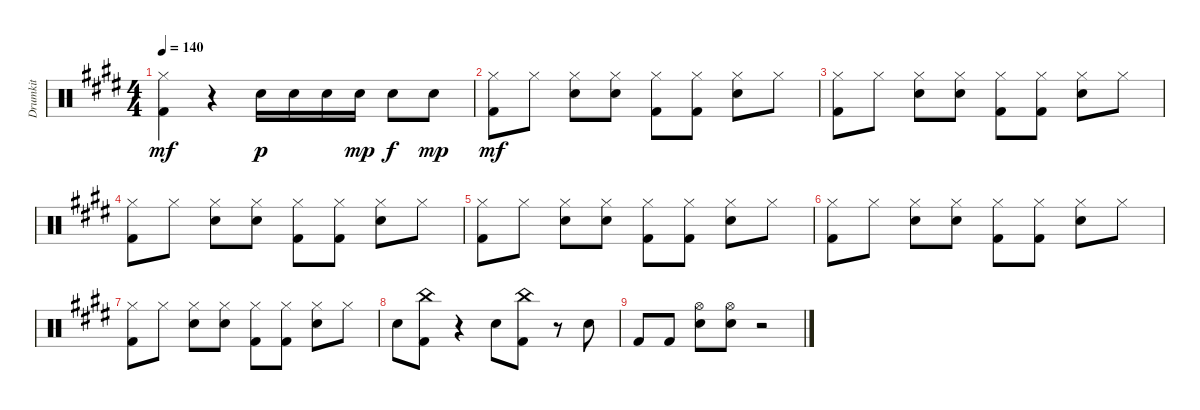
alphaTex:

\track ("Drumkit" "Drumkit") {instrument percussion}
\staff {score}
\articulation defaults
\ts (4 4)
\tempo 140
\clef neutral
\ks e
("Hi-Hat (closed)" "Kick (hit) 2").4{dy mf} r.4 "Snare (hit) 2".16{dy p} "Snare (hit) 2".16 "Snare (hit) 2".16 "Snare (hit) 2".16{dy mp} "Snare (hit) 2".8{dy f} "Snare (hit) 2".8{dy mp} |
("Hi-Hat (closed)" "Kick (hit) 2").8{dy mf} "Hi-Hat (closed)".8 ("Hi-Hat (closed)" "Snare (hit) 2").8 ("Hi-Hat (closed)" "Snare (hit) 2").8 ("Hi-Hat (closed)" "Kick (hit) 2").8 ("Hi-Hat (closed)" "Kick (hit) 2").8 ("Hi-Hat (closed)" "Snare (hit) 2").8 "Hi-Hat (closed)".8 |
("Hi-Hat (closed)" "Kick (hit) 2").8 "Hi-Hat (closed)".8 ("Hi-Hat (closed)" "Snare (hit) 2").8 ("Hi-Hat (closed)" "Snare (hit) 2").8 ("Hi-Hat (closed)" "Kick (hit) 2").8 ("Hi-Hat (closed)" "Kick (hit) 2").8 ("Hi-Hat (closed)" "Snare (hit) 2").8 "Hi-Hat (closed)".8 |
("Hi-Hat (closed)" "Kick (hit) 2").8 "Hi-Hat (closed)".8 ("Hi-Hat (closed)" "Snare (hit) 2").8 ("Hi-Hat (closed)" "Snare (hit) 2").8 ("Hi-Hat (closed)" "Kick (hit) 2").8 ("Hi-Hat (closed)" "Kick (hit) 2").8 ("Hi-Hat (closed)" "Snare (hit) 2").8 "Hi-Hat (closed)".8 |
("Hi-Hat (closed)" "Kick (hit) 2").8 "Hi-Hat (closed)".8 ("Hi-Hat (closed)" "Snare (hit) 2").8 ("Hi-Hat (closed)" "Snare (hit) 2").8 ("Hi-Hat (closed)" "Kick (hit) 2").8 ("Hi-Hat (closed)" "Kick (hit) 2").8 ("Hi-Hat (closed)" "Snare (hit) 2").8 "Hi-Hat (closed)".8 |
("Hi-Hat (closed)" "Kick (hit) 2").8 "Hi-Hat (closed)".8 ("Hi-Hat (closed)" "Snare (hit) 2").8 ("Hi-Hat (closed)" "Snare (hit) 2").8 ("Hi-Hat (closed)" "Kick (hit) 2").8 ("Hi-Hat (closed)" "Kick (hit) 2").8 ("Hi-Hat (closed)" "Snare (hit) 2").8 "Hi-Hat (closed)".8 |
("Hi-Hat (closed)" "Kick (hit) 2").8 "Hi-Hat (closed)".8 ("Hi-Hat (closed)" "Snare (hit) 2").8 ("Hi-Hat (closed)" "Snare (hit) 2").8 ("Hi-Hat (closed)" "Kick (hit) 2").8 ("Hi-Hat (closed)" "Kick (hit) 2").8 ("Hi-Hat (closed)" "Snare (hit) 2").8 "Hi-Hat (closed)".8 |
"Snare (hit) 2".8 ("Kick (hit) 2" "China (hit)").8 r.4 "Snare (hit) 2".8 ("Kick (hit) 2" "China (hit)").8 r.8 "Snare (hit) 2".8 |
"Kick (hit) 2".8 "Kick (hit) 2".8 ("Snare (hit) 2" "Hi-Hat (open)").8 ("Snare (hit) 2" "Hi-Hat (open)").8 r.2
